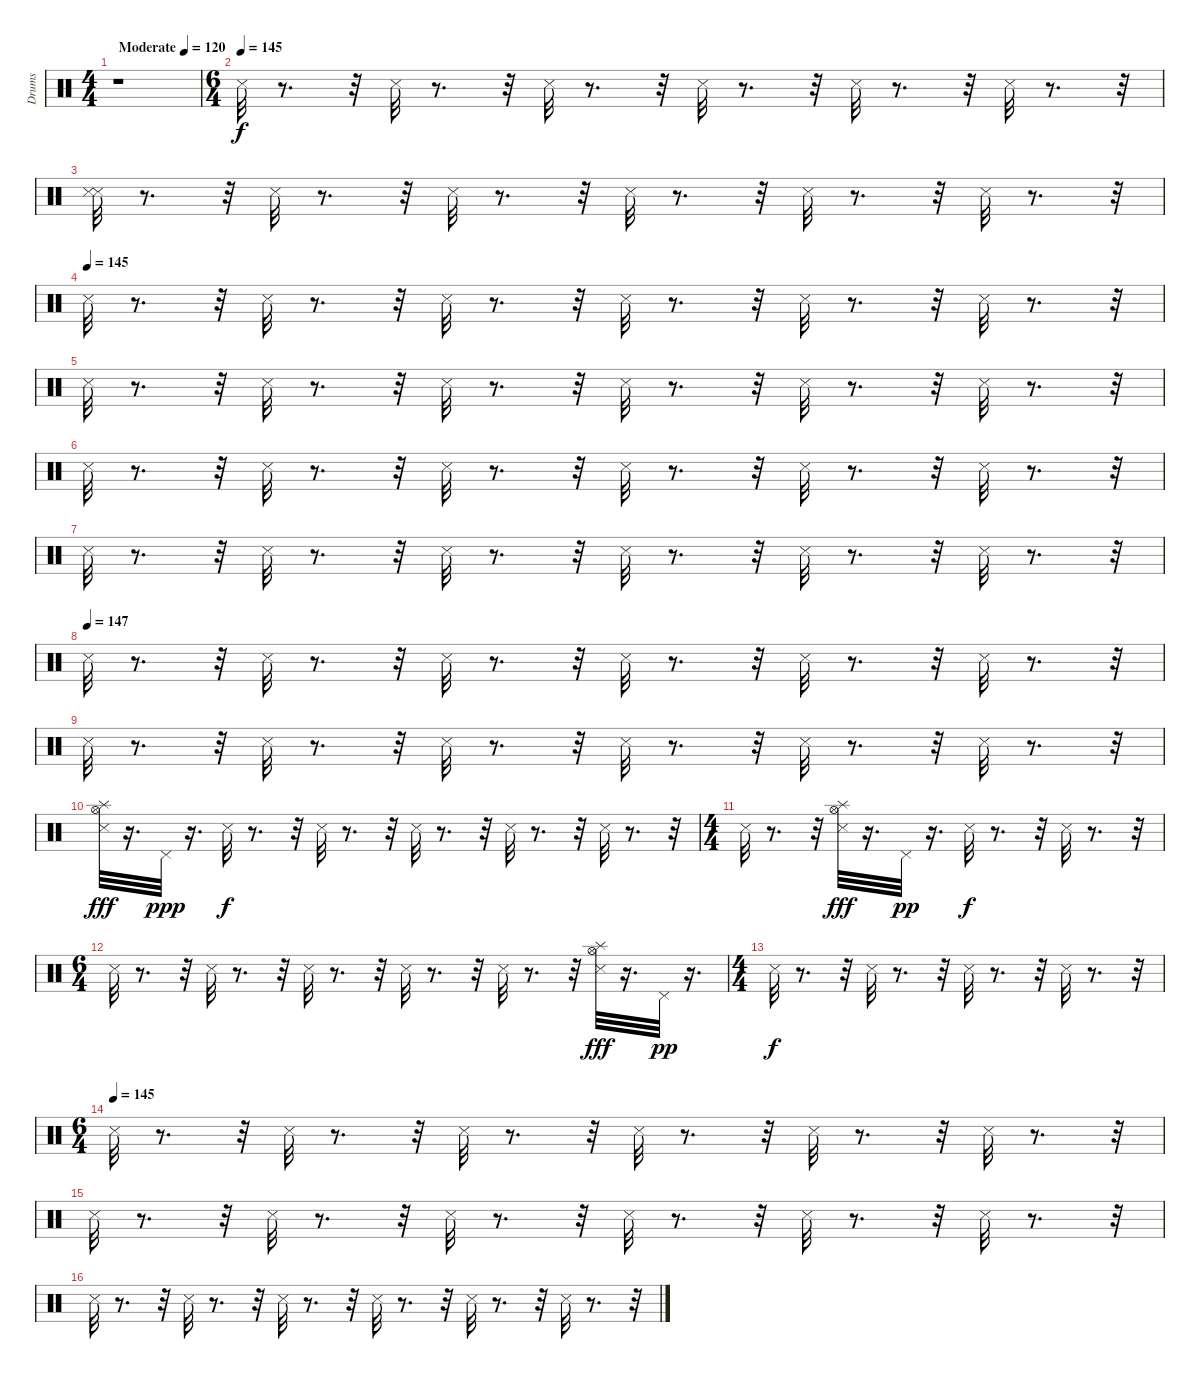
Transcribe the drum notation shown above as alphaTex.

\track ("Drums" "Drums") {instrument percussion}
\staff {score}
\articulation defaults
\ts (4 4)
\tempo (120 "Moderate")
\clef neutral
\ks c
r.1{dy f} |
\ts (6 4)
\tempo (145)
"Metronome (hit)".32 r.8{d} r.32 "Metronome (hit)".32 r.8{d} r.32 "Metronome (hit)".32 r.8{d} r.32 "Metronome (hit)".32 r.8{d} r.32 "Metronome (hit)".32 r.8{d} r.32 "Metronome (hit)".32 r.8{d} r.32 |
("Metronome (hit)" "Metronome (hit)").32 r.8{d} r.32 "Metronome (hit)".32 r.8{d} r.32 "Metronome (hit)".32 r.8{d} r.32 "Metronome (hit)".32 r.8{d} r.32 "Metronome (hit)".32 r.8{d} r.32 "Metronome (hit)".32 r.8{d} r.32 |
\tempo (145)
"Metronome (hit)".32 r.8{d} r.32 "Metronome (hit)".32 r.8{d} r.32 "Metronome (hit)".32 r.8{d} r.32 "Metronome (hit)".32 r.8{d} r.32 "Metronome (hit)".32 r.8{d} r.32 "Metronome (hit)".32 r.8{d} r.32 |
"Metronome (hit)".32 r.8{d} r.32 "Metronome (hit)".32 r.8{d} r.32 "Metronome (hit)".32 r.8{d} r.32 "Metronome (hit)".32 r.8{d} r.32 "Metronome (hit)".32 r.8{d} r.32 "Metronome (hit)".32 r.8{d} r.32 |
"Metronome (hit)".32 r.8{d} r.32 "Metronome (hit)".32 r.8{d} r.32 "Metronome (hit)".32 r.8{d} r.32 "Metronome (hit)".32 r.8{d} r.32 "Metronome (hit)".32 r.8{d} r.32 "Metronome (hit)".32 r.8{d} r.32 |
"Metronome (hit)".32 r.8{d} r.32 "Metronome (hit)".32 r.8{d} r.32 "Metronome (hit)".32 r.8{d} r.32 "Metronome (hit)".32 r.8{d} r.32 "Metronome (hit)".32 r.8{d} r.32 "Metronome (hit)".32 r.8{d} r.32 |
\tempo (147)
"Metronome (hit)".32 r.8{d} r.32 "Metronome (hit)".32 r.8{d} r.32 "Metronome (hit)".32 r.8{d} r.32 "Metronome (hit)".32 r.8{d} r.32 "Metronome (hit)".32 r.8{d} r.32 "Metronome (hit)".32 r.8{d} r.32 |
"Metronome (hit)".32 r.8{d} r.32 "Metronome (hit)".32 r.8{d} r.32 "Metronome (hit)".32 r.8{d} r.32 "Metronome (hit)".32 r.8{d} r.32 "Metronome (hit)".32 r.8{d} r.32 "Metronome (hit)".32 r.8{d} r.32 |
("Hi-Hat (open)" "Splash (hit)" "Metronome (hit)").32{dy fff} r.16{d} "Pedal Hi-Hat (hit)".32{dy ppp} r.16{d} "Metronome (hit)".32{dy f} r.8{d} r.32 "Metronome (hit)".32 r.8{d} r.32 "Metronome (hit)".32 r.8{d} r.32 "Metronome (hit)".32 r.8{d} r.32 "Metronome (hit)".32 r.8{d} r.32 |
\ts (4 4)
"Metronome (hit)".32 r.8{d} r.32 ("Hi-Hat (open)" "Splash (hit)" "Metronome (hit)").32{dy fff} r.16{d} "Pedal Hi-Hat (hit)".32{dy pp} r.16{d} "Metronome (hit)".32{dy f} r.8{d} r.32 "Metronome (hit)".32 r.8{d} r.32 |
\ts (6 4)
"Metronome (hit)".32 r.8{d} r.32 "Metronome (hit)".32 r.8{d} r.32 "Metronome (hit)".32 r.8{d} r.32 "Metronome (hit)".32 r.8{d} r.32 "Metronome (hit)".32 r.8{d} r.32 ("Metronome (hit)" "Hi-Hat (open)" "Splash (hit)").32{dy fff} r.16{d} "Pedal Hi-Hat (hit)".32{dy pp} r.16{d} |
\ts (4 4)
"Metronome (hit)".32{dy f} r.8{d} r.32 "Metronome (hit)".32 r.8{d} r.32 "Metronome (hit)".32 r.8{d} r.32 "Metronome (hit)".32 r.8{d} r.32 |
\ts (6 4)
\tempo (145)
"Metronome (hit)".32 r.8{d} r.32 "Metronome (hit)".32 r.8{d} r.32 "Metronome (hit)".32 r.8{d} r.32 "Metronome (hit)".32 r.8{d} r.32 "Metronome (hit)".32 r.8{d} r.32 "Metronome (hit)".32 r.8{d} r.32 |
"Metronome (hit)".32 r.8{d} r.32 "Metronome (hit)".32 r.8{d} r.32 "Metronome (hit)".32 r.8{d} r.32 "Metronome (hit)".32 r.8{d} r.32 "Metronome (hit)".32 r.8{d} r.32 "Metronome (hit)".32 r.8{d} r.32 |
"Metronome (hit)".32 r.8{d} r.32 "Metronome (hit)".32 r.8{d} r.32 "Metronome (hit)".32 r.8{d} r.32 "Metronome (hit)".32 r.8{d} r.32 "Metronome (hit)".32 r.8{d} r.32 "Metronome (hit)".32 r.8{d} r.32
